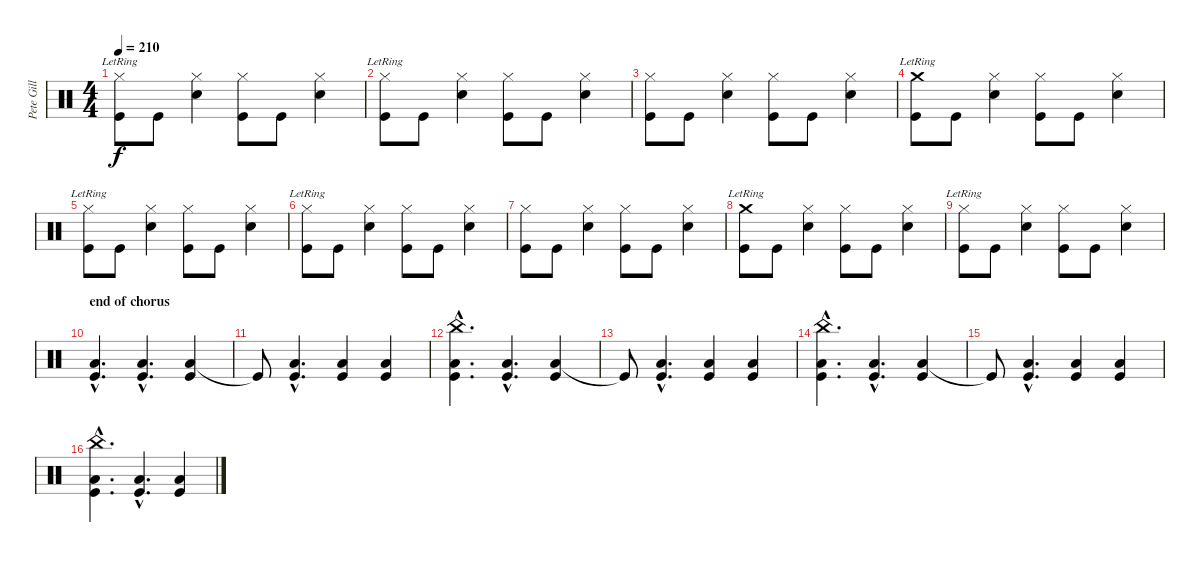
\track ("Pete Gill" "Pete Gill") {instrument percussion}
\staff {score}
\articulation defaults
\ts (4 4)
\tempo 210
\clef neutral
\ks c
("Hi-Hat (closed)"{lr} "Kick (hit)").8{dy f} "Kick (hit)".8 ("Hi-Hat (closed)" "Snare (hit) 2").4 ("Hi-Hat (closed)" "Kick (hit)").8 "Kick (hit)".8 ("Hi-Hat (closed)" "Snare (hit) 2").4 |
("Hi-Hat (closed)"{lr} "Kick (hit)").8 "Kick (hit)".8 ("Hi-Hat (closed)" "Snare (hit) 2").4 ("Hi-Hat (closed)" "Kick (hit)").8 "Kick (hit)".8 ("Hi-Hat (closed)" "Snare (hit) 2").4 |
("Hi-Hat (closed)" "Kick (hit)").8 "Kick (hit)".8 ("Hi-Hat (closed)" "Snare (hit) 2").4 ("Hi-Hat (closed)" "Kick (hit)").8 "Kick (hit)".8 ("Hi-Hat (closed)" "Snare (hit) 2").4 |
("Crash medium (hit)"{lr} "Kick (hit)").8 "Kick (hit)".8 ("Hi-Hat (closed)" "Snare (hit) 2").4 ("Hi-Hat (closed)" "Kick (hit)").8 "Kick (hit)".8 ("Hi-Hat (closed)" "Snare (hit) 2").4 |
("Hi-Hat (closed)"{lr} "Kick (hit)").8 "Kick (hit)".8 ("Hi-Hat (closed)" "Snare (hit) 2").4 ("Hi-Hat (closed)" "Kick (hit)").8 "Kick (hit)".8 ("Hi-Hat (closed)" "Snare (hit) 2").4 |
("Hi-Hat (closed)"{lr} "Kick (hit)").8 "Kick (hit)".8 ("Hi-Hat (closed)" "Snare (hit) 2").4 ("Hi-Hat (closed)" "Kick (hit)").8 "Kick (hit)".8 ("Hi-Hat (closed)" "Snare (hit) 2").4 |
("Hi-Hat (closed)" "Kick (hit)").8 "Kick (hit)".8 ("Hi-Hat (closed)" "Snare (hit) 2").4 ("Hi-Hat (closed)" "Kick (hit)").8 "Kick (hit)".8 ("Hi-Hat (closed)" "Snare (hit) 2").4 |
("Crash medium (hit)"{lr} "Kick (hit)").8 "Kick (hit)".8 ("Hi-Hat (closed)" "Snare (hit) 2").4 ("Hi-Hat (closed)" "Kick (hit)").8 "Kick (hit)".8 ("Hi-Hat (closed)" "Snare (hit) 2").4 |
("Hi-Hat (closed)"{lr} "Kick (hit)").8 "Kick (hit)".8 ("Hi-Hat (closed)" "Snare (hit) 2").4 ("Hi-Hat (closed)" "Kick (hit)").8 "Kick (hit)".8 ("Hi-Hat (closed)" "Snare (hit) 2").4 |
\section ("" "end of chorus")
("Low Tom (hit)"{hac} "Kick (hit)"{hac}).4{d} ("Low Tom (hit)"{hac} "Kick (hit)"{hac}).4{d} ("Low Tom (hit)" "Kick (hit)").4 |
"Kick (hit)"{t}.8 ("Low Tom (hit)"{hac} "Kick (hit)"{hac}).4{d} ("Low Tom (hit)" "Kick (hit)").4 ("Low Tom (hit)" "Kick (hit)").4 |
("China (hit)"{hac} "Low Tom (hit)"{hac} "Kick (hit)"{hac}).4{d} ("Low Tom (hit)"{hac} "Kick (hit)"{hac}).4{d} ("Low Tom (hit)" "Kick (hit)").4 |
"Kick (hit)"{t}.8 ("Low Tom (hit)"{hac} "Kick (hit)"{hac}).4{d} ("Low Tom (hit)" "Kick (hit)").4 ("Low Tom (hit)" "Kick (hit)").4 |
("China (hit)"{hac} "Low Tom (hit)"{hac} "Kick (hit)"{hac}).4{d} ("Low Tom (hit)"{hac} "Kick (hit)"{hac}).4{d} ("Low Tom (hit)" "Kick (hit)").4 |
"Kick (hit)"{t}.8 ("Low Tom (hit)"{hac} "Kick (hit)"{hac}).4{d} ("Low Tom (hit)" "Kick (hit)").4 ("Low Tom (hit)" "Kick (hit)").4 |
("China (hit)"{hac} "Low Tom (hit)"{hac} "Kick (hit)"{hac}).4{d} ("Low Tom (hit)"{hac} "Kick (hit)"{hac}).4{d} ("Low Tom (hit)" "Kick (hit)").4
